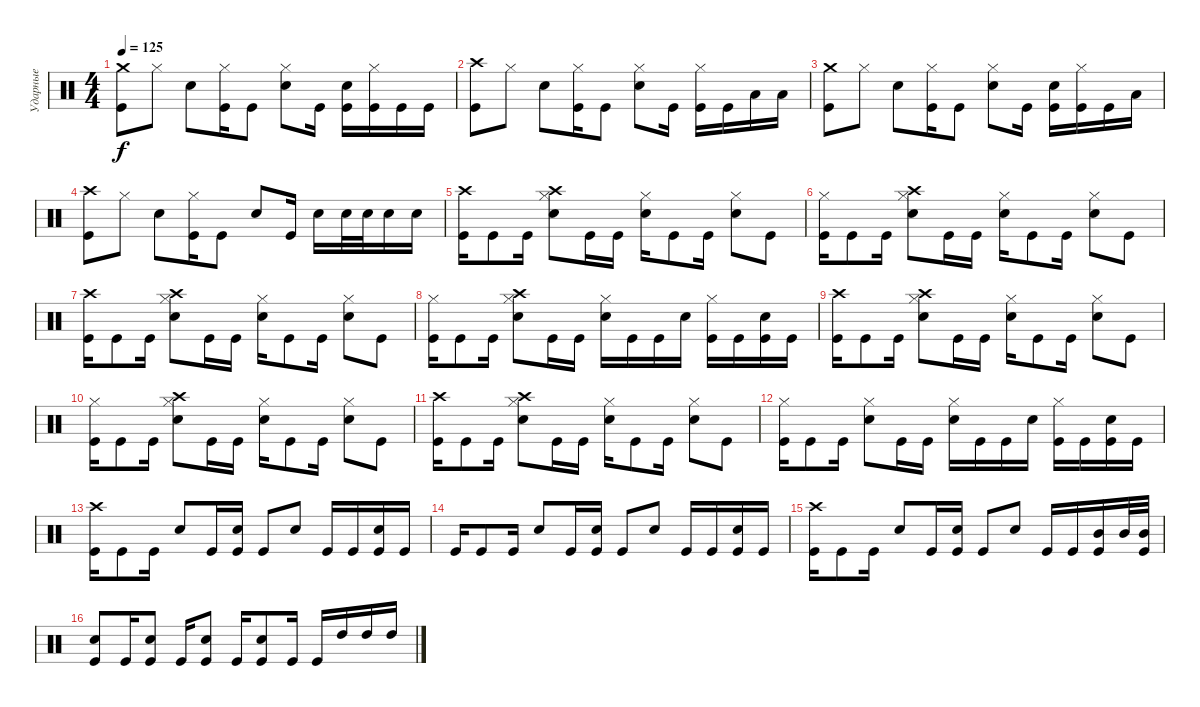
\track ("Ударные" "Ударные") {instrument percussion}
\staff {score}
\articulation defaults
\ts (4 4)
\tempo 125
\clef neutral
\ks c
("Crash medium (hit)" "Kick (hit)").8{dy f} "Hi-Hat (closed)".8 "Electric Snare (hit)".8 ("Hi-Hat (closed)" "Kick (hit)").16 "Kick (hit)".8 ("Hi-Hat (closed)" "Electric Snare (hit)").8 "Kick (hit)".16 ("Electric Snare (hit)" "Kick (hit)").16 ("Hi-Hat (closed)" "Kick (hit)").16 "Kick (hit)".16 "Kick (hit)".16 |
("Crash high (hit)" "Kick (hit)").8 "Hi-Hat (closed)".8 "Electric Snare (hit)".8 ("Hi-Hat (closed)" "Kick (hit)").16 "Kick (hit)".8 ("Hi-Hat (closed)" "Electric Snare (hit)").8 "Kick (hit)".16 ("Hi-Hat (closed)" "Kick (hit)").16 "Kick (hit)".16 "Low Tom (hit)".16 "Low Tom (hit)".16 |
("Crash medium (hit)" "Kick (hit)").8 "Hi-Hat (closed)".8 "Electric Snare (hit)".8 ("Hi-Hat (closed)" "Kick (hit)").16 "Kick (hit)".8 ("Hi-Hat (closed)" "Electric Snare (hit)").8 "Kick (hit)".16 ("Electric Snare (hit)" "Kick (hit)").16 ("Hi-Hat (closed)" "Kick (hit)").16 "Kick (hit)".16 "Low Tom (hit)".16 |
("Crash high (hit)" "Kick (hit)").8 "Hi-Hat (closed)".8 "Electric Snare (hit)".8 ("Hi-Hat (closed)" "Kick (hit)").16 "Kick (hit)".8 "Electric Snare (hit)".8 "Kick (hit)".16 "Electric Snare (hit)".16 "Electric Snare (hit)".32 "Electric Snare (hit)".32 "Electric Snare (hit)".16 "Electric Snare (hit)".16 |
("Crash high (hit)" "Kick (hit)").16 "Kick (hit)".8 "Kick (hit)".16 ("Crash high (hit)" "Hi-Hat (closed)" "Electric Snare (hit)").8 "Kick (hit)".16 "Kick (hit)".16 ("Hi-Hat (closed)" "Electric Snare (hit)").16 "Kick (hit)".8 "Kick (hit)".16 ("Hi-Hat (closed)" "Electric Snare (hit)").8 "Kick (hit)".8 |
("Hi-Hat (closed)" "Kick (hit)").16 "Kick (hit)".8 "Kick (hit)".16 ("Hi-Hat (closed)" "Crash high (hit)" "Electric Snare (hit)").8 "Kick (hit)".16 "Kick (hit)".16 ("Hi-Hat (closed)" "Electric Snare (hit)").16 "Kick (hit)".8 "Kick (hit)".16 ("Hi-Hat (closed)" "Electric Snare (hit)").8 "Kick (hit)".8 |
("Crash high (hit)" "Kick (hit)").16 "Kick (hit)".8 "Kick (hit)".16 ("Hi-Hat (closed)" "Crash high (hit)" "Electric Snare (hit)").8 "Kick (hit)".16 "Kick (hit)".16 ("Hi-Hat (closed)" "Electric Snare (hit)").16 "Kick (hit)".8 "Kick (hit)".16 ("Hi-Hat (closed)" "Electric Snare (hit)").8 "Kick (hit)".8 |
("Hi-Hat (closed)" "Kick (hit)").16 "Kick (hit)".8 "Kick (hit)".16 ("Hi-Hat (closed)" "Crash high (hit)" "Electric Snare (hit)").8 "Kick (hit)".16 "Kick (hit)".16 ("Hi-Hat (closed)" "Electric Snare (hit)").16 "Kick (hit)".16 "Kick (hit)".16 "Electric Snare (hit)".16 ("Hi-Hat (closed)" "Kick (hit)").16 "Kick (hit)".16 ("Electric Snare (hit)" "Kick (hit)").16 "Kick (hit)".16 |
("Crash high (hit)" "Kick (hit)").16 "Kick (hit)".8 "Kick (hit)".16 ("Crash high (hit)" "Hi-Hat (closed)" "Electric Snare (hit)").8 "Kick (hit)".16 "Kick (hit)".16 ("Hi-Hat (closed)" "Electric Snare (hit)").16 "Kick (hit)".8 "Kick (hit)".16 ("Hi-Hat (closed)" "Electric Snare (hit)").8 "Kick (hit)".8 |
("Hi-Hat (closed)" "Kick (hit)").16 "Kick (hit)".8 "Kick (hit)".16 ("Hi-Hat (closed)" "Crash high (hit)" "Electric Snare (hit)").8 "Kick (hit)".16 "Kick (hit)".16 ("Hi-Hat (closed)" "Electric Snare (hit)").16 "Kick (hit)".8 "Kick (hit)".16 ("Hi-Hat (closed)" "Electric Snare (hit)").8 "Kick (hit)".8 |
("Crash high (hit)" "Kick (hit)").16 "Kick (hit)".8 "Kick (hit)".16 ("Hi-Hat (closed)" "Crash high (hit)" "Electric Snare (hit)").8 "Kick (hit)".16 "Kick (hit)".16 ("Hi-Hat (closed)" "Electric Snare (hit)").16 "Kick (hit)".8 "Kick (hit)".16 ("Hi-Hat (closed)" "Electric Snare (hit)").8 "Kick (hit)".8 |
("Hi-Hat (closed)" "Kick (hit)").16 "Kick (hit)".8 "Kick (hit)".16 ("Hi-Hat (closed)" "Electric Snare (hit)").8 "Kick (hit)".16 "Kick (hit)".16 ("Hi-Hat (closed)" "Electric Snare (hit)").16 "Kick (hit)".16 "Kick (hit)".16 "Electric Snare (hit)".16 ("Hi-Hat (closed)" "Kick (hit)").16 "Kick (hit)".16 ("Electric Snare (hit)" "Kick (hit)").16 "Kick (hit)".16 |
("Crash high (hit)" "Kick (hit)").16 "Kick (hit)".8 "Kick (hit)".16 "Electric Snare (hit)".8 "Kick (hit)".16 ("Electric Snare (hit)" "Kick (hit)").16 "Kick (hit)".8 "Electric Snare (hit)".8 "Kick (hit)".16 "Kick (hit)".16 ("Electric Snare (hit)" "Kick (hit)").16 "Kick (hit)".16 |
"Kick (hit)".16 "Kick (hit)".8 "Kick (hit)".16 "Electric Snare (hit)".8 "Kick (hit)".16 ("Electric Snare (hit)" "Kick (hit)").16 "Kick (hit)".8 "Electric Snare (hit)".8 "Kick (hit)".16 "Kick (hit)".16 ("Electric Snare (hit)" "Kick (hit)").16 "Kick (hit)".16 |
("Crash high (hit)" "Kick (hit)").16 "Kick (hit)".8 "Kick (hit)".16 "Electric Snare (hit)".8 "Kick (hit)".16 ("Electric Snare (hit)" "Kick (hit)").16 "Kick (hit)".8 "Electric Snare (hit)".8 "Kick (hit)".16 "Kick (hit)".16 ("Mid Tom (hit)" "Kick (hit)").16 "Mid Tom (hit)".32 ("Mid Tom (hit)" "Kick (hit)").32 |
("Electric Snare (hit)" "Kick (hit)").8 "Kick (hit)".16 ("Electric Snare (hit)" "Kick (hit)").8 "Kick (hit)".16 ("Electric Snare (hit)" "Kick (hit)").8 "Kick (hit)".16 ("Electric Snare (hit)" "Kick (hit)").8 "Kick (hit)".16 "Kick (hit)".16 "High Tom (hit)".16 "High Tom (hit)".16 "High Tom (hit)".16
